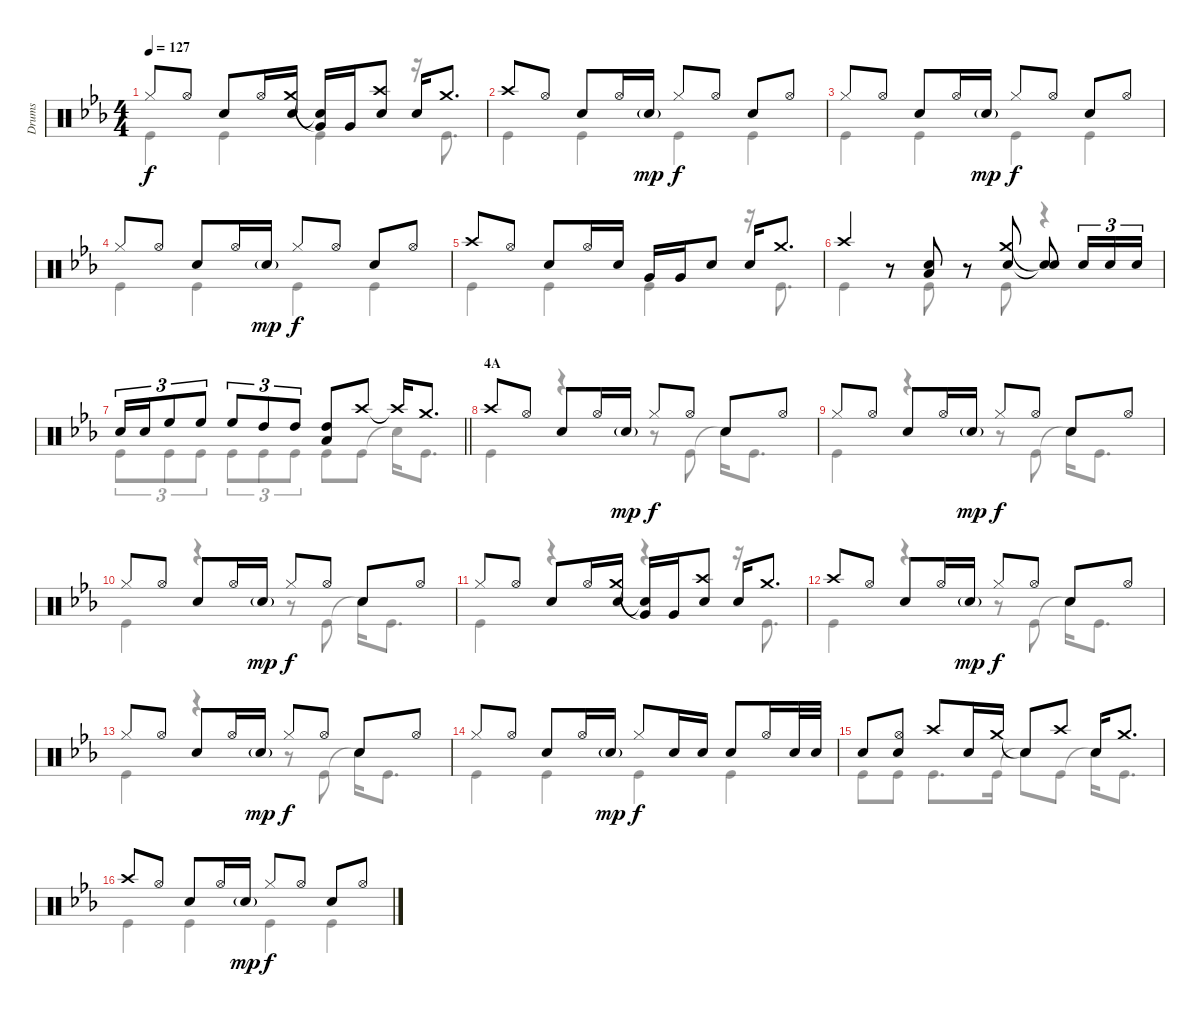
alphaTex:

\track ("Drums" "Drums") {instrument percussion}
\staff {score}
\articulation defaults
\voice
\ts (4 4)
\tempo 127
\clef neutral
\ks eb "Hi-Hat (closed)".8{dy f} "Hi-Hat (open)".8 "Snare (hit) 2".8 "Hi-Hat (open)".16
("Crash medium (hit)" "Snare (hit) 2").16 ("Very Low Tom (hit)"{t} "Snare (hit)"{t}).16 "Very Low Tom (hit)".16 ("Crash high (hit)" "Snare (hit) 2").8 "Snare (hit) 2".16 "Crash medium (hit)".8{d} |
"Crash high (hit)".8 "Hi-Hat (open)".8 "Snare (hit) 2".8 "Hi-Hat (open)".16 "Snare (hit) 2"{g}.16{dy mp} "Hi-Hat (closed)".8{dy f} "Hi-Hat (open)".8 "Snare (hit) 2".8 "Hi-Hat (open)".8 |
"Hi-Hat (closed)".8 "Hi-Hat (open)".8 "Snare (hit) 2".8 "Hi-Hat (open)".16 "Snare (hit) 2"{g}.16{dy mp} "Hi-Hat (closed)".8{dy f} "Hi-Hat (open)".8 "Snare (hit) 2".8 "Hi-Hat (open)".8 |
"Hi-Hat (closed)".8 "Hi-Hat (open)".8 "Snare (hit) 2".8 "Hi-Hat (open)".16 "Snare (hit) 2"{g}.16{dy mp} "Hi-Hat (closed)".8{dy f} "Hi-Hat (open)".8 "Snare (hit) 2".8 "Hi-Hat (open)".8 |
"Crash high (hit)".8 "Hi-Hat (open)".8 "Snare (hit) 2".8 "Hi-Hat (open)".16 "Snare (hit) 2".16 "Very Low Tom (hit)".16 "Very Low Tom (hit)".16 "Snare (hit) 2".8 "Snare (hit) 2".16 "Crash medium (hit)".8{d} |
"Crash high (hit)".4 r.8 ("Snare (hit) 2" "Low Tom (hit)").8 r.8 ("Crash medium (hit)" "Snare (hit) 2").8 ("Snare (hit) 2"{t} "Snare (hit)"{t}).8 "Snare (hit) 2".16{tu (3 2)} "Snare (hit) 2".16{tu (3 2)} "Snare (hit) 2".16{tu (3 2)} |
\barLineRight lightlight "Snare (hit) 2".16{tu (3 2)} "Snare (hit) 2".16{tu (3 2)} "High Floor Tom (hit)".8{tu (3 2)} "High Floor Tom (hit)".8{tu (3 2)} "High Floor Tom (hit)".8{tu (3 2)} "High Tom (hit)".8{tu (3 2)} "High Tom (hit)".8{tu (3 2)}
("High Tom (hit)" "Low Tom (hit)").8 "Crash high (hit)".8 "Crash high (hit)"{t}.16 "Crash medium (hit)".8{d} |
\section ("" "4A")
"Crash high (hit)".8 "Hi-Hat (open)".8 "Snare (hit) 2".8 "Hi-Hat (open)".16 "Snare (hit) 2"{g}.16{dy mp} "Hi-Hat (closed)".8{dy f} "Hi-Hat (open)".8 "Snare (hit) 2".8 "Hi-Hat (open)".8 |
"Hi-Hat (closed)".8 "Hi-Hat (open)".8 "Snare (hit) 2".8 "Hi-Hat (open)".16 "Snare (hit) 2"{g}.16{dy mp} "Hi-Hat (closed)".8{dy f} "Hi-Hat (open)".8 "Snare (hit) 2".8 "Hi-Hat (open)".8 |
"Hi-Hat (closed)".8 "Hi-Hat (open)".8 "Snare (hit) 2".8 "Hi-Hat (open)".16 "Snare (hit) 2"{g}.16{dy mp} "Hi-Hat (closed)".8{dy f} "Hi-Hat (open)".8 "Snare (hit) 2".8 "Hi-Hat (open)".8 |
"Hi-Hat (closed)".8 "Hi-Hat (open)".8 "Snare (hit) 2".8 "Hi-Hat (open)".16 ("Crash medium (hit)" "Snare (hit) 2").16 ("Very Low Tom (hit)"{t} "Snare (hit)"{t}).16 "Very Low Tom (hit)".16 ("Crash high (hit)" "Snare (hit) 2").8 "Snare (hit) 2".16 "Crash medium (hit)".8{d} |
"Crash high (hit)".8 "Hi-Hat (open)".8 "Snare (hit) 2".8 "Hi-Hat (open)".16 "Snare (hit) 2"{g}.16{dy mp} "Hi-Hat (closed)".8{dy f} "Hi-Hat (open)".8 "Snare (hit) 2".8 "Hi-Hat (open)".8 |
"Hi-Hat (closed)".8 "Hi-Hat (open)".8 "Snare (hit) 2".8 "Hi-Hat (open)".16 "Snare (hit) 2"{g}.16{dy mp} "Hi-Hat (closed)".8{dy f} "Hi-Hat (open)".8 "Snare (hit) 2".8 "Hi-Hat (open)".8 |
"Hi-Hat (closed)".8 "Hi-Hat (open)".8 "Snare (hit) 2".8 "Hi-Hat (open)".16 "Snare (hit) 2"{g}.16{dy mp} "Hi-Hat (closed)".8{dy f} "Snare (hit) 2".16 "Snare (hit) 2".16 "Snare (hit) 2".8 "Hi-Hat (open)".16 "Snare (hit) 2".32 "Snare (hit) 2".32 |
"Snare (hit) 2".8 ("Hi-Hat (open)" "Snare (hit) 2").8 "Crash high (hit)".8 "Snare (hit) 2".16 "Crash medium (hit)".16 "Snare (hit)"{t}.8 "Crash high (hit)".8 "Snare (hit) 2".16 "Crash medium (hit)".8{d} |
"Crash high (hit)".8 "Hi-Hat (open)".8 "Snare (hit) 2".8 "Hi-Hat (open)".16 "Snare (hit) 2"{g}.16{dy mp} "Hi-Hat (closed)".8{dy f} "Hi-Hat (open)".8 "Snare (hit) 2".8 "Hi-Hat (open)".8
\voice
\clef neutral
\ottava regular
\simile none
\ks eb "Kick (hit)".4{dy f} "Kick (hit)".4 "Kick (hit)".4
r.16 "Kick (hit)".8{d} |
"Kick (hit)".4 "Kick (hit)".4 "Kick (hit)".4 "Kick (hit)".4 |
"Kick (hit)".4 "Kick (hit)".4 "Kick (hit)".4 "Kick (hit)".4 |
"Kick (hit)".4 "Kick (hit)".4 "Kick (hit)".4 "Kick (hit)".4 |
"Kick (hit)".4 "Kick (hit)".4 "Kick (hit)".4 r.16 "Kick (hit)".8{d} |
"Kick (hit)".4 r.8 "Kick (hit)".8 r.8 "Kick (hit)".8 r.4 |
\barLineRight lightlight "Kick (hit)".8{tu (3 2)} "Kick (hit)".8{tu (3 2)} "Kick (hit)".8{tu (3 2)} "Kick (hit)".8{tu (3 2)} "Kick (hit)".8{tu (3 2)} "Kick (hit)".8{tu (3 2)} "Kick (hit)".8 "Kick (hit)".8 "Snare (hit)"{t}.16 "Kick (hit)".8{d}
|
"Kick (hit)".4 r.4 r.8 "Kick (hit)".8 "Snare (hit)"{t}.16 "Kick (hit)".8{d} |
"Kick (hit)".4 r.4 r.8 "Kick (hit)".8 "Snare (hit)"{t}.16 "Kick (hit)".8{d} |
"Kick (hit)".4 r.4 r.8 "Kick (hit)".8 "Snare (hit)"{t}.16 "Kick (hit)".8{d} |
"Kick (hit)".4 r.4 r.4 r.16 "Kick (hit)".8{d} |
"Kick (hit)".4 r.4 r.8 "Kick (hit)".8 "Snare (hit)"{t}.16 "Kick (hit)".8{d} |
"Kick (hit)".4 r.4 r.8 "Kick (hit)".8 "Snare (hit)"{t}.16 "Kick (hit)".8{d} |
"Kick (hit)".4 "Kick (hit)".4 "Kick (hit)".4 "Kick (hit)".4 |
"Kick (hit)".8 "Kick (hit)".8 "Kick (hit)".8{d} "Kick (hit)".16 "Snare (hit)"{t}.8 "Kick (hit)".8 "Snare (hit)"{t}.16 "Kick (hit)".8{d} |
"Kick (hit)".4 "Kick (hit)".4 "Kick (hit)".4 "Kick (hit)".4
